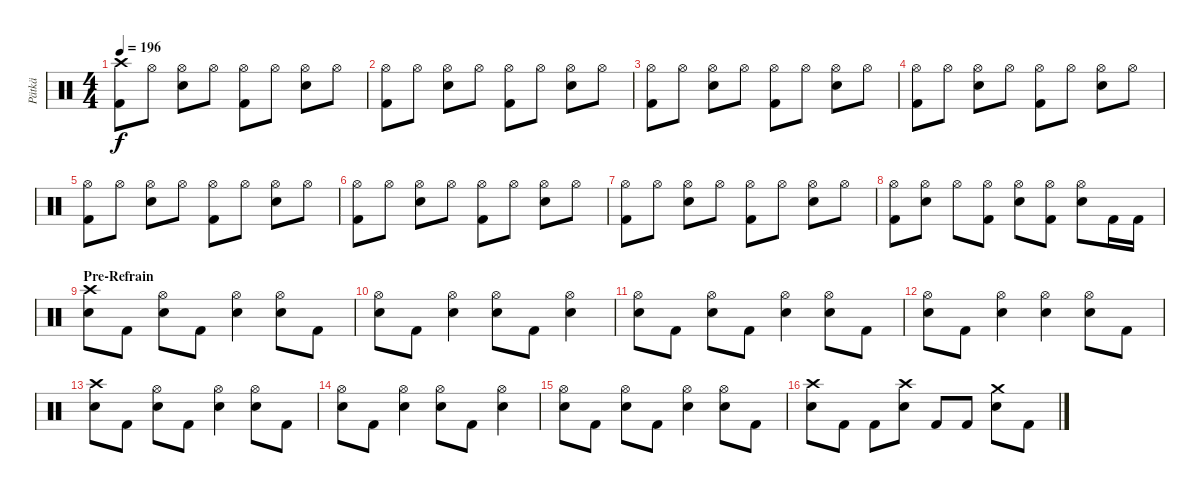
\track ("Pätkä" "Pätkä") {instrument percussion}
\staff {score}
\articulation defaults
\ts (4 4)
\tempo 196
\clef neutral
\ks c
("Crash high (hit)" "Kick (hit) 2").8{dy f} "Hi-Hat (open)".8 ("Hi-Hat (open)" "Electric Snare (hit)").8 "Hi-Hat (open)".8 ("Hi-Hat (open)" "Kick (hit) 2").8 "Hi-Hat (open)".8 ("Hi-Hat (open)" "Electric Snare (hit)").8 "Hi-Hat (open)".8 |
("Hi-Hat (open)" "Kick (hit) 2").8 "Hi-Hat (open)".8 ("Hi-Hat (open)" "Electric Snare (hit)").8 "Hi-Hat (open)".8 ("Hi-Hat (open)" "Kick (hit) 2").8 "Hi-Hat (open)".8 ("Hi-Hat (open)" "Electric Snare (hit)").8 "Hi-Hat (open)".8 |
("Hi-Hat (open)" "Kick (hit) 2").8 "Hi-Hat (open)".8 ("Hi-Hat (open)" "Electric Snare (hit)").8 "Hi-Hat (open)".8 ("Hi-Hat (open)" "Kick (hit) 2").8 "Hi-Hat (open)".8 ("Hi-Hat (open)" "Electric Snare (hit)").8 "Hi-Hat (open)".8 |
("Hi-Hat (open)" "Kick (hit) 2").8 "Hi-Hat (open)".8 ("Hi-Hat (open)" "Electric Snare (hit)").8 "Hi-Hat (open)".8 ("Hi-Hat (open)" "Kick (hit) 2").8 "Hi-Hat (open)".8 ("Hi-Hat (open)" "Electric Snare (hit)").8 "Hi-Hat (open)".8 |
("Hi-Hat (open)" "Kick (hit) 2").8 "Hi-Hat (open)".8 ("Hi-Hat (open)" "Electric Snare (hit)").8 "Hi-Hat (open)".8 ("Hi-Hat (open)" "Kick (hit) 2").8 "Hi-Hat (open)".8 ("Hi-Hat (open)" "Electric Snare (hit)").8 "Hi-Hat (open)".8 |
("Hi-Hat (open)" "Kick (hit) 2").8 "Hi-Hat (open)".8 ("Hi-Hat (open)" "Electric Snare (hit)").8 "Hi-Hat (open)".8 ("Hi-Hat (open)" "Kick (hit) 2").8 "Hi-Hat (open)".8 ("Hi-Hat (open)" "Electric Snare (hit)").8 "Hi-Hat (open)".8 |
("Hi-Hat (open)" "Kick (hit) 2").8 "Hi-Hat (open)".8 ("Hi-Hat (open)" "Electric Snare (hit)").8 "Hi-Hat (open)".8 ("Hi-Hat (open)" "Kick (hit) 2").8 "Hi-Hat (open)".8 ("Hi-Hat (open)" "Electric Snare (hit)").8 "Hi-Hat (open)".8 |
("Hi-Hat (open)" "Kick (hit) 2").8 ("Hi-Hat (open)" "Electric Snare (hit)").8 "Hi-Hat (open)".8 ("Hi-Hat (open)" "Kick (hit) 2").8 ("Hi-Hat (open)" "Electric Snare (hit)").8 ("Hi-Hat (open)" "Kick (hit) 2").8 ("Hi-Hat (open)" "Electric Snare (hit)").8 "Kick (hit) 2".16 "Kick (hit) 2".16 |
\section ("" "Pre-Refrain")
("Crash high (hit)" "Electric Snare (hit)").8 "Kick (hit) 2".8 ("Hi-Hat (open)" "Electric Snare (hit)").8 "Kick (hit) 2".8 ("Hi-Hat (open)" "Electric Snare (hit)").4 ("Hi-Hat (open)" "Electric Snare (hit)").8 "Kick (hit) 2".8 |
("Hi-Hat (open)" "Electric Snare (hit)").8 "Kick (hit) 2".8 ("Hi-Hat (open)" "Electric Snare (hit)").4 ("Hi-Hat (open)" "Electric Snare (hit)").8 "Kick (hit) 2".8 ("Hi-Hat (open)" "Electric Snare (hit)").4 |
("Hi-Hat (open)" "Electric Snare (hit)").8 "Kick (hit) 2".8 ("Hi-Hat (open)" "Electric Snare (hit)").8 "Kick (hit) 2".8 ("Hi-Hat (open)" "Electric Snare (hit)").4 ("Hi-Hat (open)" "Electric Snare (hit)").8 "Kick (hit) 2".8 |
("Hi-Hat (open)" "Electric Snare (hit)").8 "Kick (hit) 2".8 ("Hi-Hat (open)" "Electric Snare (hit)").4 ("Hi-Hat (open)" "Electric Snare (hit)").4 ("Hi-Hat (open)" "Electric Snare (hit)").8 "Kick (hit) 2".8 |
("Crash high (hit)" "Electric Snare (hit)").8 "Kick (hit) 2".8 ("Hi-Hat (open)" "Electric Snare (hit)").8 "Kick (hit) 2".8 ("Hi-Hat (open)" "Electric Snare (hit)").4 ("Hi-Hat (open)" "Electric Snare (hit)").8 "Kick (hit) 2".8 |
("Hi-Hat (open)" "Electric Snare (hit)").8 "Kick (hit) 2".8 ("Hi-Hat (open)" "Electric Snare (hit)").4 ("Hi-Hat (open)" "Electric Snare (hit)").8 "Kick (hit) 2".8 ("Hi-Hat (open)" "Electric Snare (hit)").4 |
("Hi-Hat (open)" "Electric Snare (hit)").8 "Kick (hit) 2".8 ("Hi-Hat (open)" "Electric Snare (hit)").8 "Kick (hit) 2".8 ("Hi-Hat (open)" "Electric Snare (hit)").4 ("Hi-Hat (open)" "Electric Snare (hit)").8 "Kick (hit) 2".8 |
("Crash high (hit)" "Electric Snare (hit)").8 "Kick (hit) 2".8 "Kick (hit) 2".8 ("Crash high (hit)" "Electric Snare (hit)").8 "Kick (hit) 2".8 "Kick (hit) 2".8 ("Crash medium (hit)" "Electric Snare (hit)").8 "Kick (hit) 2".8
